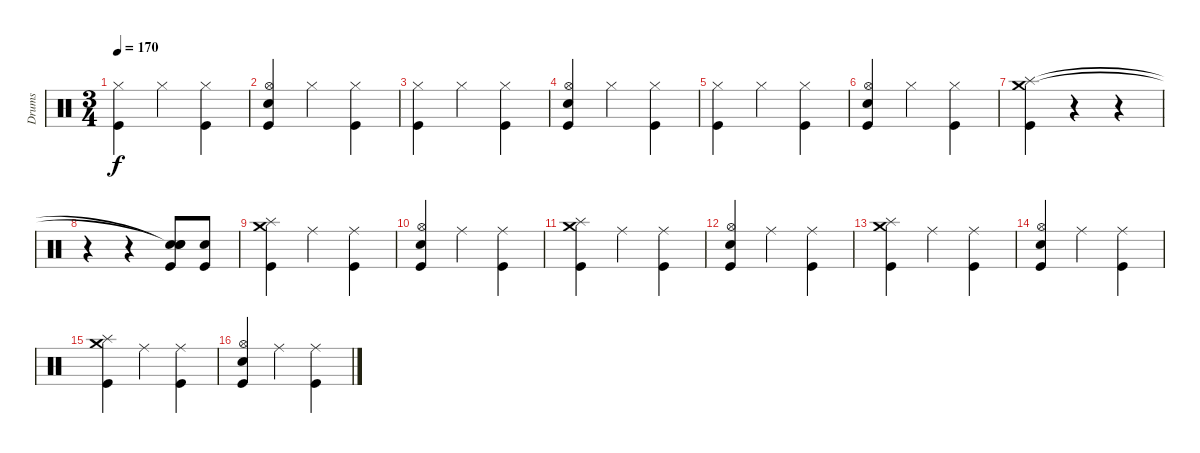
\track ("Drums" "Drums") {instrument percussion}
\staff {score}
\articulation defaults
\ts (3 4)
\tempo 170
\clef neutral
\ks c
("Hi-Hat (closed)" "Kick (hit)").4{dy f} "Hi-Hat (closed)".4 ("Hi-Hat (closed)" "Kick (hit)").4 |
("Hi-Hat (open)" "Electric Snare (hit)" "Kick (hit)").4 "Hi-Hat (closed)".4 ("Hi-Hat (closed)" "Kick (hit)").4 |
("Hi-Hat (closed)" "Kick (hit)").4 "Hi-Hat (closed)".4 ("Hi-Hat (closed)" "Kick (hit)").4 |
("Hi-Hat (open)" "Electric Snare (hit)" "Kick (hit)").4 "Hi-Hat (closed)".4 ("Hi-Hat (closed)" "Kick (hit)").4 |
("Hi-Hat (closed)" "Kick (hit)").4 "Hi-Hat (closed)".4 ("Hi-Hat (closed)" "Kick (hit)").4 |
("Hi-Hat (open)" "Electric Snare (hit)" "Kick (hit)").4 "Hi-Hat (closed)".4 ("Hi-Hat (closed)" "Kick (hit)").4 |
("Splash (hit)" "Crash medium (hit)" "Kick (hit)").4 r.4 r.4 |
r.4 r.4 ("Snare (hit)"{t} "Snare (hit)"{t} "Electric Snare (hit)" "Kick (hit)").8 ("Electric Snare (hit)" "Kick (hit)").8 |
("Splash (hit)" "Crash medium (hit)" "Kick (hit)").4 "Ride (middle)".4 ("Ride (middle)" "Kick (hit)").4 |
("Hi-Hat (open)" "Electric Snare (hit)" "Kick (hit)").4 "Ride (middle)".4 ("Ride (middle)" "Kick (hit)").4 |
("Splash (hit)" "Crash medium (hit)" "Kick (hit)").4 "Ride (middle)".4 ("Ride (middle)" "Kick (hit)").4 |
("Hi-Hat (open)" "Electric Snare (hit)" "Kick (hit)").4 "Ride (middle)".4 ("Ride (middle)" "Kick (hit)").4 |
("Splash (hit)" "Crash medium (hit)" "Kick (hit)").4 "Ride (middle)".4 ("Ride (middle)" "Kick (hit)").4 |
("Hi-Hat (open)" "Electric Snare (hit)" "Kick (hit)").4 "Ride (middle)".4 ("Ride (middle)" "Kick (hit)").4 |
("Splash (hit)" "Crash medium (hit)" "Kick (hit)").4 "Ride (middle)".4 ("Ride (middle)" "Kick (hit)").4 |
("Hi-Hat (open)" "Electric Snare (hit)" "Kick (hit)").4 "Ride (middle)".4 ("Ride (middle)" "Kick (hit)").4
